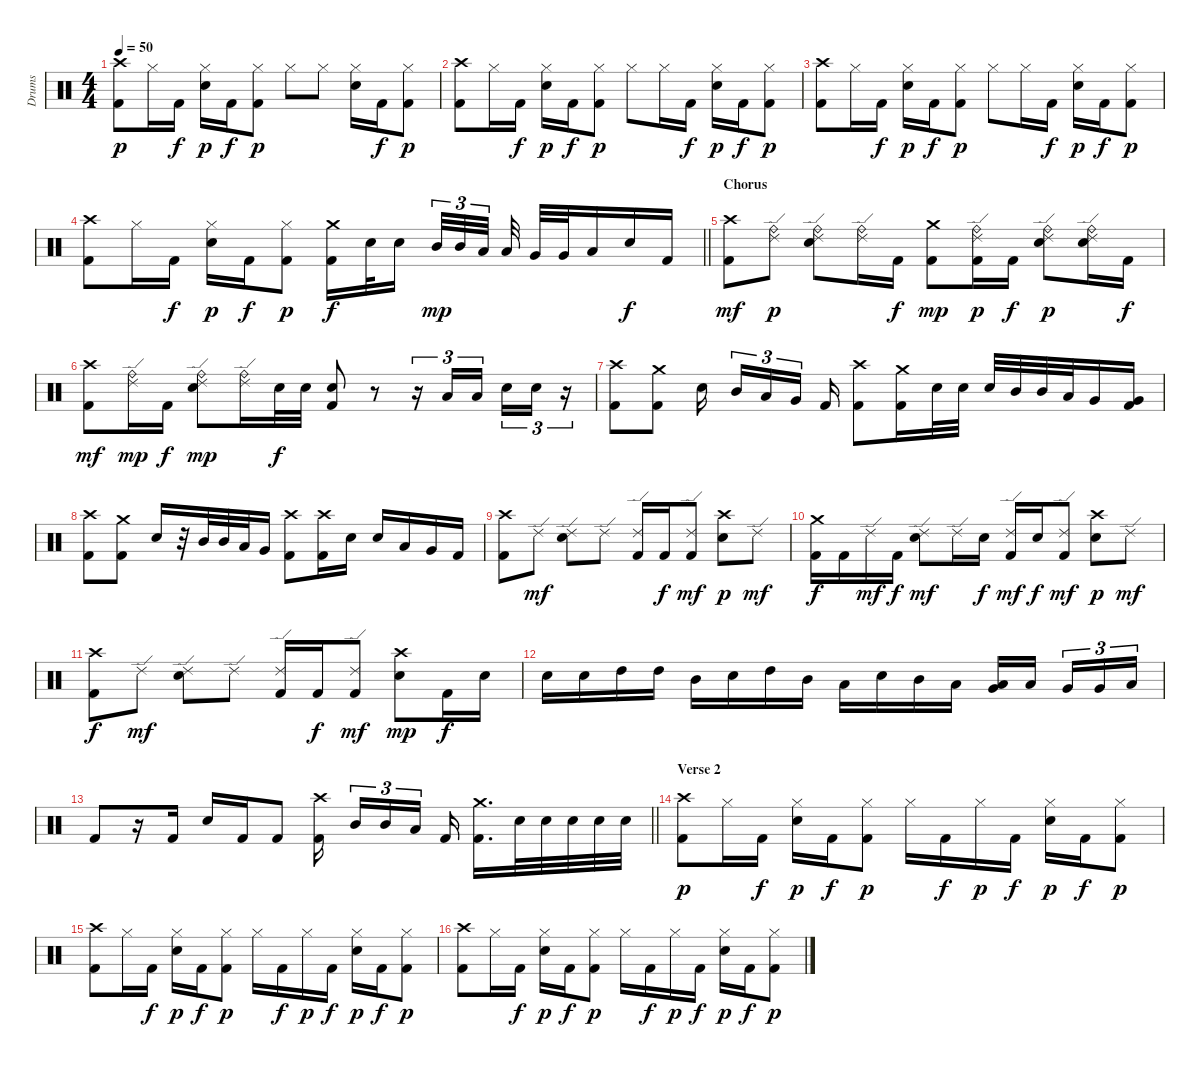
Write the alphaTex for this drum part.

\track ("Drums" "Drums") {instrument percussion}
\staff {score}
\articulation defaults
\ts (4 4)
\tempo 50
\clef neutral
\ks c
("Crash high (hit)" "Kick (hit) 2").8{dy p} "Hi-Hat (closed)".16 "Kick (hit) 2".16{dy f} ("Hi-Hat (closed)" "Electric Snare (hit)").16{dy p} "Kick (hit) 2".16{dy f} ("Hi-Hat (closed)" "Kick (hit) 2").8{dy p} "Hi-Hat (closed)".8 "Hi-Hat (closed)".8 ("Hi-Hat (closed)" "Electric Snare (hit)").16 "Kick (hit) 2".16{dy f} ("Hi-Hat (closed)" "Kick (hit) 2").8{dy p} |
("Crash high (hit)" "Kick (hit) 2").8 "Hi-Hat (closed)".16 "Kick (hit) 2".16{dy f} ("Hi-Hat (closed)" "Electric Snare (hit)").16{dy p} "Kick (hit) 2".16{dy f} ("Hi-Hat (closed)" "Kick (hit) 2").8{dy p} "Hi-Hat (closed)".8 "Hi-Hat (closed)".16 "Kick (hit) 2".16{dy f} ("Hi-Hat (closed)" "Electric Snare (hit)").16{dy p} "Kick (hit) 2".16{dy f} ("Hi-Hat (closed)" "Kick (hit) 2").8{dy p} |
("Crash high (hit)" "Kick (hit) 2").8 "Hi-Hat (closed)".16 "Kick (hit) 2".16{dy f} ("Hi-Hat (closed)" "Electric Snare (hit)").16{dy p} "Kick (hit) 2".16{dy f} ("Hi-Hat (closed)" "Kick (hit) 2").8{dy p} "Hi-Hat (closed)".8 "Hi-Hat (closed)".16 "Kick (hit) 2".16{dy f} ("Hi-Hat (closed)" "Electric Snare (hit)").16{dy p} "Kick (hit) 2".16{dy f} ("Hi-Hat (closed)" "Kick (hit) 2").8{dy p} |
\barLineRight lightlight
("Crash high (hit)" "Kick (hit) 2").8 "Hi-Hat (closed)".16 "Kick (hit) 2".16{dy f} ("Hi-Hat (closed)" "Electric Snare (hit)").16{dy p} "Kick (hit) 2".16{dy f} ("Hi-Hat (closed)" "Kick (hit) 2").8{dy p} ("Crash medium (hit)" "Kick (hit) 2").16{dy f} "Electric Snare (hit)".32 "Electric Snare (hit)".16{beam splitsecondary} "Mid Tom (hit)".32{tu (3 2) dy mp} "Mid Tom (hit)".32{tu (3 2)} "Low Tom (hit)".32{tu (3 2) beam splitsecondary} "Low Tom (hit)".32 "Very Low Tom (hit)".32 "Very Low Tom (hit)".32 "Low Floor Tom (hit)".16 "Electric Snare (hit)".16{dy f} "Kick (hit) 2".16 |
\section ("" "Chorus")
("Crash high (hit)" "Kick (hit) 2").8{dy mf} ("Ride (edge) 2" "Ride (bell)").8{dy p} ("Ride (edge) 2" "Ride (bell)" "Electric Snare (hit)").8 ("Ride (edge) 2" "Ride (bell)").16 "Kick (hit) 2".16{dy f} ("Crash medium (hit)" "Kick (hit) 2").8{dy mp} ("Ride (edge) 2" "Ride (bell)" "Kick (hit) 2").16{dy p} "Kick (hit) 2".16{dy f} ("Ride (edge) 2" "Ride (bell)" "Electric Snare (hit)").8{dy p} ("Ride (edge) 2" "Ride (bell)" "Electric Snare (hit)").16 "Kick (hit) 2".16{dy f} |
("Crash high (hit)" "Kick (hit) 2").8{dy mf} ("Ride (edge) 2" "Ride (bell)").16{dy mp} "Kick (hit) 2".16{dy f} ("Ride (edge) 2" "Ride (bell)" "Electric Snare (hit)").8{dy mp} ("Ride (edge) 2" "Ride (bell)").16 "Electric Snare (hit)".32{dy f} "Electric Snare (hit)".32 ("Electric Snare (hit)" "Kick (hit) 2").8 r.8 r.16{tu (3 2)} "Low Tom (hit)".16{tu (3 2)} "Low Tom (hit)".16{tu (3 2) beam splitsecondary} "Electric Snare (hit)".16{tu (3 2)} "Electric Snare (hit)".16{tu (3 2)} r.16{tu (3 2)} |
("Crash high (hit)" "Kick (hit) 2").8 ("Crash medium (hit)" "Kick (hit) 2").8 "Electric Snare (hit)".16{beam splitsecondary} "Mid Tom (hit)".16{tu (3 2)} "Low Tom (hit)".16{tu (3 2)} "Very Low Tom (hit)".16{tu (3 2) beam splitsecondary} "Kick (hit) 2".16 ("Crash high (hit)" "Kick (hit) 2").8 ("Crash medium (hit)" "Kick (hit) 2").16 "Electric Snare (hit)".32 "Electric Snare (hit)".32 "Electric Snare (hit)".32 "Mid Tom (hit)".32 "Mid Tom (hit)".32 "Low Tom (hit)".32 "Very Low Tom (hit)".16 ("Very Low Tom (hit)" "Kick (hit) 2").16 |
("Crash high (hit)" "Kick (hit) 2").8 ("Crash medium (hit)" "Kick (hit) 2").8 "Electric Snare (hit)".16 r.32 "Mid Tom (hit)".32 "Mid Tom (hit)".32 "Low Tom (hit)".32 "Very Low Tom (hit)".16 ("Crash high (hit)" "Kick (hit) 2").8 ("Crash high (hit)" "Kick (hit) 2").16 "Electric Snare (hit)".16 "Electric Snare (hit)".16 "Low Tom (hit)".16 "Very Low Tom (hit)".16 "Kick (hit) 2".16 |
("Crash high (hit)" "Kick (hit) 2").8 "Ride (edge) 2".8{dy mf} ("Ride (edge) 2" "Electric Snare (hit)").8 "Ride (edge) 2".8 ("Ride (edge) 2" "Kick (hit) 2").16 "Kick (hit) 2".16{dy f} ("Ride (edge) 2" "Kick (hit) 2").8{dy mf} ("Crash high (hit)" "Electric Snare (hit)").8{dy p} "Ride (edge) 2".8{dy mf} |
("Crash medium (hit)" "Kick (hit) 2").16{dy f} "Kick (hit) 2".16 "Ride (edge) 2".16{dy mf} "Kick (hit) 2".16{dy f} ("Ride (edge) 2" "Electric Snare (hit)").8{dy mf} "Ride (edge) 2".16 "Electric Snare (hit)".16{dy f} ("Ride (edge) 2" "Kick (hit) 2").16{dy mf} "Electric Snare (hit)".16{dy f} ("Ride (edge) 2" "Kick (hit) 2").8{dy mf} ("Crash high (hit)" "Electric Snare (hit)").8{dy p} "Ride (edge) 2".8{dy mf} |
("Crash high (hit)" "Kick (hit) 2").8{dy f} "Ride (edge) 2".8{dy mf} ("Ride (edge) 2" "Electric Snare (hit)").8 "Ride (edge) 2".8 ("Ride (edge) 2" "Kick (hit) 2").16 "Kick (hit) 2".16{dy f} ("Ride (edge) 2" "Kick (hit) 2").8{dy mf} ("Crash high (hit)" "Electric Snare (hit)").8{dy mp} "Kick (hit) 2".16{dy f} "Electric Snare (hit)".16 |
"Electric Snare (hit)".16 "Electric Snare (hit)".16 "High Tom (hit)".16 "High Tom (hit)".16 "Mid Tom (hit)".16 "Electric Snare (hit)".16 "High Tom (hit)".16 "Mid Tom (hit)".16 "Low Tom (hit)".16 "Electric Snare (hit)".16 "Mid Tom (hit)".16 "Low Tom (hit)".16 ("Very Low Tom (hit)" "Low Floor Tom (hit)").16 "Low Floor Tom (hit)".16{beam splitsecondary} "Very Low Tom (hit)".16{tu (3 2)} "Very Low Tom (hit)".16{tu (3 2)} "Low Floor Tom (hit)".16{tu (3 2)} |
\barLineRight lightlight "Kick (hit) 2".8
r.16 "Kick (hit) 2".16 "Electric Snare (hit)".16 "Kick (hit) 2".16 "Kick (hit) 2".8 ("Crash high (hit)" "Kick (hit) 2").16{beam splitsecondary} "Mid Tom (hit)".16{tu (3 2)} "Mid Tom (hit)".16{tu (3 2)} "Low Tom (hit)".16{tu (3 2) beam splitsecondary} "Kick (hit) 2".16 ("Crash medium (hit)" "Kick (hit) 2").16{d} "Electric Snare (hit)".32 "Electric Snare (hit)".32 "Electric Snare (hit)".32 "Electric Snare (hit)".32 "Electric Snare (hit)".32 |
\section ("" "Verse 2")
("Crash high (hit)" "Kick (hit) 2").8{dy p} "Hi-Hat (closed)".16 "Kick (hit) 2".16{dy f} ("Hi-Hat (closed)" "Electric Snare (hit)").16{dy p} "Kick (hit) 2".16{dy f} ("Hi-Hat (closed)" "Kick (hit) 2").8{dy p} "Hi-Hat (closed)".16 "Kick (hit) 2".16{dy f} "Hi-Hat (closed)".16{dy p} "Kick (hit) 2".16{dy f} ("Hi-Hat (closed)" "Electric Snare (hit)").16{dy p} "Kick (hit) 2".16{dy f} ("Hi-Hat (closed)" "Kick (hit) 2").8{dy p} |
("Crash high (hit)" "Kick (hit) 2").8 "Hi-Hat (closed)".16 "Kick (hit) 2".16{dy f} ("Hi-Hat (closed)" "Electric Snare (hit)").16{dy p} "Kick (hit) 2".16{dy f} ("Hi-Hat (closed)" "Kick (hit) 2").8{dy p} "Hi-Hat (closed)".16 "Kick (hit) 2".16{dy f} "Hi-Hat (closed)".16{dy p} "Kick (hit) 2".16{dy f} ("Hi-Hat (closed)" "Electric Snare (hit)").16{dy p} "Kick (hit) 2".16{dy f} ("Hi-Hat (closed)" "Kick (hit) 2").8{dy p} |
("Crash high (hit)" "Kick (hit) 2").8 "Hi-Hat (closed)".16 "Kick (hit) 2".16{dy f} ("Hi-Hat (closed)" "Electric Snare (hit)").16{dy p} "Kick (hit) 2".16{dy f} ("Hi-Hat (closed)" "Kick (hit) 2").8{dy p} "Hi-Hat (closed)".16 "Kick (hit) 2".16{dy f} "Hi-Hat (closed)".16{dy p} "Kick (hit) 2".16{dy f} ("Hi-Hat (closed)" "Electric Snare (hit)").16{dy p} "Kick (hit) 2".16{dy f} ("Hi-Hat (closed)" "Kick (hit) 2").8{dy p}
